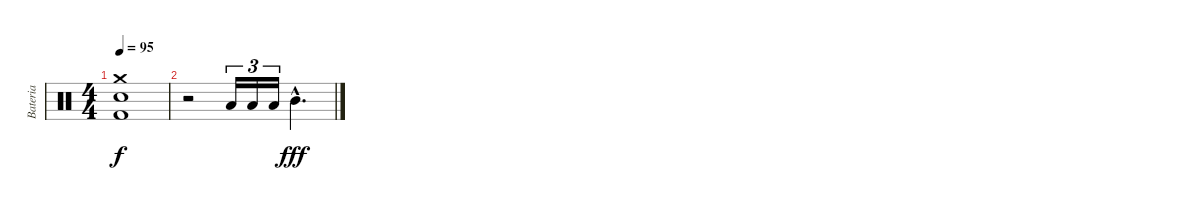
\track ("Bateria" "Bateria") {instrument percussion}
\staff {score}
\articulation defaults
\ts (4 4)
\tempo 95
\clef neutral
\ks c
("Crash medium (hit)" "Kick (hit) 2" "Snare (hit) 2").1{dy f} |
r.2 "Low Tom (hit)".16{tu (3 2)} "Low Tom (hit)".16{tu (3 2)} "Low Tom (hit)".16{tu (3 2)} "Mid Tom (hit)"{hac}.4{d dy fff}
